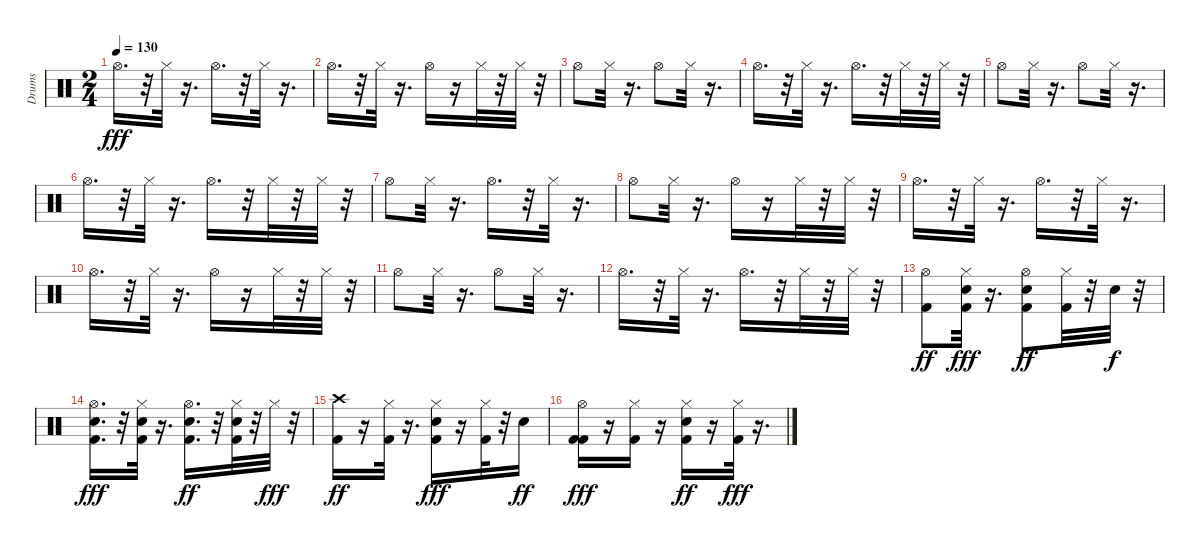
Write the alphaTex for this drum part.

\track ("Drums" "Drums") {solo instrument percussion}
\staff {score}
\articulation defaults
\ts (2 4)
\tempo 130
\clef neutral
\ks c "Hi-Hat (open)".16{d dy fff}
r.32 "Hi-Hat (closed)".32 r.16{d} "Hi-Hat (open)".16{d} r.32 "Hi-Hat (closed)".32 r.16{d} |
"Hi-Hat (open)".16{d} r.32 "Hi-Hat (closed)".32 r.16{d} "Hi-Hat (open)".16 r.16 "Hi-Hat (closed)".32 r.32 "Hi-Hat (closed)".32 r.32 |
"Hi-Hat (open)".8 "Hi-Hat (closed)".32 r.16{d} "Hi-Hat (open)".8 "Hi-Hat (closed)".32 r.16{d} |
"Hi-Hat (open)".16{d} r.32 "Hi-Hat (closed)".32 r.16{d} "Hi-Hat (open)".16{d} r.32 "Hi-Hat (closed)".32 r.32 "Hi-Hat (closed)".32 r.32 |
"Hi-Hat (open)".8 "Hi-Hat (closed)".32 r.16{d} "Hi-Hat (open)".8 "Hi-Hat (closed)".32 r.16{d} |
"Hi-Hat (open)".16{d} r.32 "Hi-Hat (closed)".32 r.16{d} "Hi-Hat (open)".16{d} r.32 "Hi-Hat (closed)".32 r.32 "Hi-Hat (closed)".32 r.32 |
"Hi-Hat (open)".8 "Hi-Hat (closed)".32 r.16{d} "Hi-Hat (open)".16{d} r.32 "Hi-Hat (closed)".32 r.16{d} |
"Hi-Hat (open)".8 "Hi-Hat (closed)".32 r.16{d} "Hi-Hat (open)".16 r.16 "Hi-Hat (closed)".32 r.32 "Hi-Hat (closed)".32 r.32 |
"Hi-Hat (open)".16{d} r.32 "Hi-Hat (closed)".32 r.16{d} "Hi-Hat (open)".16{d} r.32 "Hi-Hat (closed)".32 r.16{d} |
"Hi-Hat (open)".16{d} r.32 "Hi-Hat (closed)".32 r.16{d} "Hi-Hat (open)".16 r.16 "Hi-Hat (closed)".32 r.32 "Hi-Hat (closed)".32 r.32 |
"Hi-Hat (open)".8 "Hi-Hat (closed)".32 r.16{d} "Hi-Hat (open)".8 "Hi-Hat (closed)".32 r.16{d} |
"Hi-Hat (open)".16{d} r.32 "Hi-Hat (closed)".32 r.16{d} "Hi-Hat (open)".16{d} r.32 "Hi-Hat (closed)".32 r.32 "Hi-Hat (closed)".32 r.32 |
("Hi-Hat (open)" "Kick (hit) 2").8{dy ff} ("Kick (hit) 2" "Snare (hit) 2" "Hi-Hat (closed)").32{dy fff} r.16{d} ("Hi-Hat (open)" "Kick (hit) 2" "Snare (hit) 2").8{dy ff} ("Hi-Hat (closed)" "Kick (hit) 2").32 r.32 "Snare (hit) 2".32{dy f} r.32 |
("Kick (hit) 2" "Snare (hit) 2" "Hi-Hat (open)").16{d dy fff} r.32 ("Kick (hit) 2" "Hi-Hat (closed)" "Snare (hit) 2").32 r.16{d} ("Snare (hit) 2" "Hi-Hat (open)" "Kick (hit) 2").16{d dy ff} r.32 ("Hi-Hat (closed)" "Kick (hit) 2" "Snare (hit) 2").32 r.32 "Hi-Hat (closed)".32{dy fff} r.32 |
("Crash high (hit)" "Kick (hit) 2").16{dy ff} r.16 ("Hi-Hat (closed)" "Kick (hit) 2").32 r.16{d} ("Kick (hit) 2" "Snare (hit) 2" "Hi-Hat (closed)").16{dy fff} r.16 ("Kick (hit) 2" "Hi-Hat (closed)").32 r.32 "Snare (hit) 2".16{dy ff} |
("Kick (hit) 2" "Kick (hit) 2" "Hi-Hat (open)").16{dy fff} r.16 ("Kick (hit) 2" "Hi-Hat (closed)").16 r.16 ("Hi-Hat (closed)" "Snare (hit) 2" "Kick (hit) 2").16{dy ff} r.16 ("Kick (hit) 2" "Hi-Hat (closed)").32{dy fff} r.16{d}
